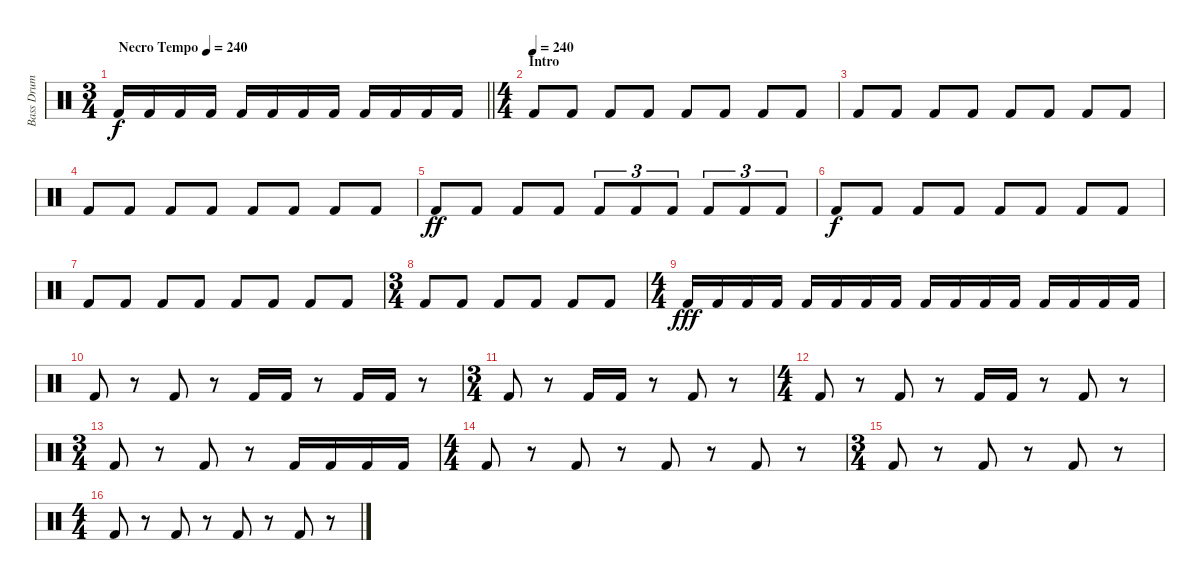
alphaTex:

\track ("Bass Drum" "Bass Drum") {instrument percussion}
\staff {score}
\articulation defaults
\ts (3 4)
\tempo (240 "Necro Tempo")
\clef neutral
\barLineRight lightlight
\ks c "Kick (hit) 2".16{dy f} "Kick (hit) 2".16 "Kick (hit) 2".16 "Kick (hit) 2".16 "Kick (hit) 2".16 "Kick (hit) 2".16 "Kick (hit) 2".16 "Kick (hit) 2".16 "Kick (hit) 2".16 "Kick (hit) 2".16 "Kick (hit) 2".16 "Kick (hit) 2".16
|
\ts (4 4)
\section ("" "Intro")
\tempo (240)
"Kick (hit) 2".8{volume 12} "Kick (hit) 2".8 "Kick (hit) 2".8 "Kick (hit) 2".8 "Kick (hit) 2".8 "Kick (hit) 2".8 "Kick (hit) 2".8 "Kick (hit) 2".8 |
"Kick (hit) 2".8 "Kick (hit) 2".8 "Kick (hit) 2".8 "Kick (hit) 2".8 "Kick (hit) 2".8 "Kick (hit) 2".8 "Kick (hit) 2".8 "Kick (hit) 2".8 |
"Kick (hit) 2".8 "Kick (hit) 2".8 "Kick (hit) 2".8 "Kick (hit) 2".8 "Kick (hit) 2".8 "Kick (hit) 2".8 "Kick (hit) 2".8 "Kick (hit) 2".8 |
"Kick (hit) 2".8{dy ff} "Kick (hit) 2".8 "Kick (hit) 2".8 "Kick (hit) 2".8 "Kick (hit) 2".8{tu (3 2)} "Kick (hit) 2".8{tu (3 2)} "Kick (hit) 2".8{tu (3 2)} "Kick (hit) 2".8{tu (3 2)} "Kick (hit) 2".8{tu (3 2)} "Kick (hit) 2".8{tu (3 2)} |
"Kick (hit) 2".8{dy f} "Kick (hit) 2".8 "Kick (hit) 2".8 "Kick (hit) 2".8 "Kick (hit) 2".8 "Kick (hit) 2".8 "Kick (hit) 2".8 "Kick (hit) 2".8 |
"Kick (hit) 2".8 "Kick (hit) 2".8 "Kick (hit) 2".8 "Kick (hit) 2".8 "Kick (hit) 2".8 "Kick (hit) 2".8 "Kick (hit) 2".8 "Kick (hit) 2".8 |
\ts (3 4)
"Kick (hit) 2".8 "Kick (hit) 2".8 "Kick (hit) 2".8 "Kick (hit) 2".8 "Kick (hit) 2".8 "Kick (hit) 2".8 |
\ts (4 4)
"Kick (hit) 2".16{dy fff} "Kick (hit) 2".16 "Kick (hit) 2".16 "Kick (hit) 2".16 "Kick (hit) 2".16 "Kick (hit) 2".16 "Kick (hit) 2".16 "Kick (hit) 2".16 "Kick (hit) 2".16 "Kick (hit) 2".16 "Kick (hit) 2".16 "Kick (hit) 2".16 "Kick (hit) 2".16 "Kick (hit) 2".16 "Kick (hit) 2".16 "Kick (hit) 2".16 |
"Kick (hit) 2".8{volume 16} r.8 "Kick (hit) 2".8 r.8 "Kick (hit) 2".16 "Kick (hit) 2".16 r.8 "Kick (hit) 2".16 "Kick (hit) 2".16 r.8 |
\ts (3 4)
"Kick (hit) 2".8 r.8 "Kick (hit) 2".16 "Kick (hit) 2".16 r.8 "Kick (hit) 2".8 r.8 |
\ts (4 4)
"Kick (hit) 2".8 r.8 "Kick (hit) 2".8 r.8 "Kick (hit) 2".16 "Kick (hit) 2".16 r.8 "Kick (hit) 2".8 r.8 |
\ts (3 4)
"Kick (hit) 2".8 r.8 "Kick (hit) 2".8 r.8 "Kick (hit) 2".16 "Kick (hit) 2".16 "Kick (hit) 2".16 "Kick (hit) 2".16 |
\ts (4 4)
"Kick (hit) 2".8 r.8 "Kick (hit) 2".8 r.8 "Kick (hit) 2".8 r.8 "Kick (hit) 2".8 r.8 |
\ts (3 4)
"Kick (hit) 2".8 r.8 "Kick (hit) 2".8 r.8 "Kick (hit) 2".8 r.8 |
\ts (4 4)
"Kick (hit) 2".8 r.8 "Kick (hit) 2".8 r.8 "Kick (hit) 2".8 r.8 "Kick (hit) 2".8 r.8
